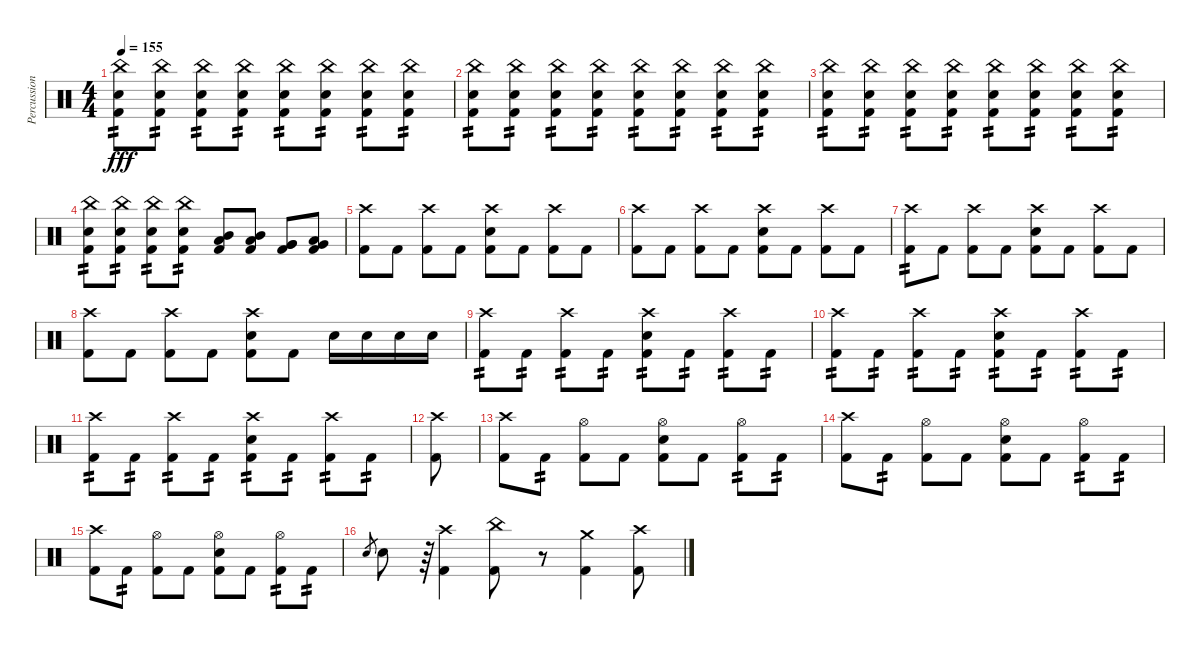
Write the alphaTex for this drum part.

\track ("Percussion" "Percussion") {instrument percussion}
\staff {score}
\articulation defaults
\ts (4 4)
\tempo 155
\clef neutral
\ks c
("Kick (hit) 2" "Electric Snare (hit)" "China (hit)").8{tp 2 dy fff} ("Kick (hit) 2" "Electric Snare (hit)" "China (hit)").8{tp 2} ("Kick (hit) 2" "Electric Snare (hit)" "China (hit)").8{tp 2} ("Kick (hit) 2" "Electric Snare (hit)" "China (hit)").8{tp 2} ("Kick (hit) 2" "Electric Snare (hit)" "China (hit)").8{tp 2} ("Kick (hit) 2" "Electric Snare (hit)" "China (hit)").8{tp 2} ("Kick (hit) 2" "Electric Snare (hit)" "China (hit)").8{tp 2} ("Kick (hit) 2" "Electric Snare (hit)" "China (hit)").8{tp 2} |
("Kick (hit) 2" "Electric Snare (hit)" "China (hit)").8{tp 2} ("Kick (hit) 2" "Electric Snare (hit)" "China (hit)").8{tp 2} ("Kick (hit) 2" "Electric Snare (hit)" "China (hit)").8{tp 2} ("Kick (hit) 2" "Electric Snare (hit)" "China (hit)").8{tp 2} ("Kick (hit) 2" "Electric Snare (hit)" "China (hit)").8{tp 2} ("Kick (hit) 2" "Electric Snare (hit)" "China (hit)").8{tp 2} ("Kick (hit) 2" "Electric Snare (hit)" "China (hit)").8{tp 2} ("Kick (hit) 2" "Electric Snare (hit)" "China (hit)").8{tp 2} |
("Kick (hit) 2" "Electric Snare (hit)" "China (hit)").8{tp 2} ("Kick (hit) 2" "Electric Snare (hit)" "China (hit)").8{tp 2} ("Kick (hit) 2" "Electric Snare (hit)" "China (hit)").8{tp 2} ("Kick (hit) 2" "Electric Snare (hit)" "China (hit)").8{tp 2} ("Kick (hit) 2" "Electric Snare (hit)" "China (hit)").8{tp 2} ("Kick (hit) 2" "Electric Snare (hit)" "China (hit)").8{tp 2} ("Kick (hit) 2" "Electric Snare (hit)" "China (hit)").8{tp 2} ("Kick (hit) 2" "Electric Snare (hit)" "China (hit)").8{tp 2} |
("Kick (hit) 2" "Electric Snare (hit)" "China (hit)").8{tp 2} ("Kick (hit) 2" "Electric Snare (hit)" "China (hit)").8{tp 2} ("Kick (hit) 2" "Electric Snare (hit)" "China (hit)").8{tp 2} ("Kick (hit) 2" "Electric Snare (hit)" "China (hit)").8{tp 2} ("Kick (hit) 2" "Mid Tom (hit)" "Low Tom (hit)").8 ("Kick (hit) 2" "Mid Tom (hit)" "Low Tom (hit)").8 ("Kick (hit) 2" "Very Low Tom (hit)" "Very Low Tom (hit)").8 ("Kick (hit) 2" "Very Low Tom (hit)" "Low Floor Tom (hit)").8 |
("Kick (hit) 2" "Crash high (hit)").8 "Kick (hit) 2".8 ("Kick (hit) 2" "Crash high (hit)").8 "Kick (hit) 2".8 ("Kick (hit) 2" "Electric Snare (hit)" "Crash high (hit)").8 "Kick (hit) 2".8 ("Kick (hit) 2" "Crash high (hit)").8 "Kick (hit) 2".8 |
("Kick (hit) 2" "Crash high (hit)").8 "Kick (hit) 2".8 ("Kick (hit) 2" "Crash high (hit)").8 "Kick (hit) 2".8 ("Kick (hit) 2" "Electric Snare (hit)" "Crash high (hit)").8 "Kick (hit) 2".8 ("Kick (hit) 2" "Crash high (hit)").8 "Kick (hit) 2".8 |
("Kick (hit) 2" "Crash high (hit)").8{tp 2} "Kick (hit) 2".8 ("Kick (hit) 2" "Crash high (hit)").8 "Kick (hit) 2".8 ("Kick (hit) 2" "Electric Snare (hit)" "Crash high (hit)").8 "Kick (hit) 2".8 ("Kick (hit) 2" "Crash high (hit)").8 "Kick (hit) 2".8 |
("Kick (hit) 2" "Crash high (hit)").8 "Kick (hit) 2".8 ("Kick (hit) 2" "Crash high (hit)").8 "Kick (hit) 2".8 ("Kick (hit) 2" "Crash high (hit)" "Electric Snare (hit)").8 "Kick (hit) 2".8 "Electric Snare (hit)".16 "Electric Snare (hit)".16 "Electric Snare (hit)".16 "Electric Snare (hit)".16 |
("Kick (hit) 2" "Crash high (hit)").8{tp 2} "Kick (hit) 2".8{tp 2} ("Kick (hit) 2" "Crash high (hit)").8{tp 2} "Kick (hit) 2".8{tp 2} ("Kick (hit) 2" "Electric Snare (hit)" "Crash high (hit)").8{tp 2} "Kick (hit) 2".8{tp 2} ("Kick (hit) 2" "Crash high (hit)").8{tp 2} "Kick (hit) 2".8{tp 2} |
("Kick (hit) 2" "Crash high (hit)").8{tp 2} "Kick (hit) 2".8{tp 2} ("Kick (hit) 2" "Crash high (hit)").8{tp 2} "Kick (hit) 2".8{tp 2} ("Kick (hit) 2" "Electric Snare (hit)" "Crash high (hit)").8{tp 2} "Kick (hit) 2".8{tp 2} ("Kick (hit) 2" "Crash high (hit)").8{tp 2} "Kick (hit) 2".8{tp 2} |
("Kick (hit) 2" "Crash high (hit)").8{tp 2} "Kick (hit) 2".8{tp 2} ("Kick (hit) 2" "Crash high (hit)").8{tp 2} "Kick (hit) 2".8{tp 2} ("Kick (hit) 2" "Electric Snare (hit)" "Crash high (hit)").8{tp 2} "Kick (hit) 2".8{tp 2} ("Kick (hit) 2" "Crash high (hit)").8{tp 2} "Kick (hit) 2".8{tp 2} |
("Kick (hit) 2" "Crash high (hit)").8 |
("Kick (hit) 2" "Crash high (hit)").8 "Kick (hit) 2".8{tp 2} ("Kick (hit) 2" "Hi-Hat (open)").8 "Kick (hit) 2".8 ("Kick (hit) 2" "Hi-Hat (open)" "Electric Snare (hit)").8 "Kick (hit) 2".8 ("Kick (hit) 2" "Hi-Hat (open)").8{tp 2} "Kick (hit) 2".8{tp 2} |
("Kick (hit) 2" "Crash high (hit)").8 "Kick (hit) 2".8{tp 2} ("Kick (hit) 2" "Hi-Hat (open)").8 "Kick (hit) 2".8 ("Kick (hit) 2" "Hi-Hat (open)" "Electric Snare (hit)").8 "Kick (hit) 2".8 ("Kick (hit) 2" "Hi-Hat (open)").8{tp 2} "Kick (hit) 2".8{tp 2} |
("Kick (hit) 2" "Crash high (hit)").8 "Kick (hit) 2".8{tp 2} ("Kick (hit) 2" "Hi-Hat (open)").8 "Kick (hit) 2".8 ("Kick (hit) 2" "Hi-Hat (open)" "Electric Snare (hit)").8 "Kick (hit) 2".8 ("Kick (hit) 2" "Hi-Hat (open)").8{tp 2} "Kick (hit) 2".8{tp 2} |
"Electric Snare (hit)".8{gr} "Electric Snare (hit)".8 r.64 ("Kick (hit) 2" "Crash high (hit)").4 ("Kick (hit) 2" "China (hit)").8 r.8 ("Kick (hit) 2" "Crash medium (hit)").4 ("Kick (hit) 2" "Crash high (hit)").8
